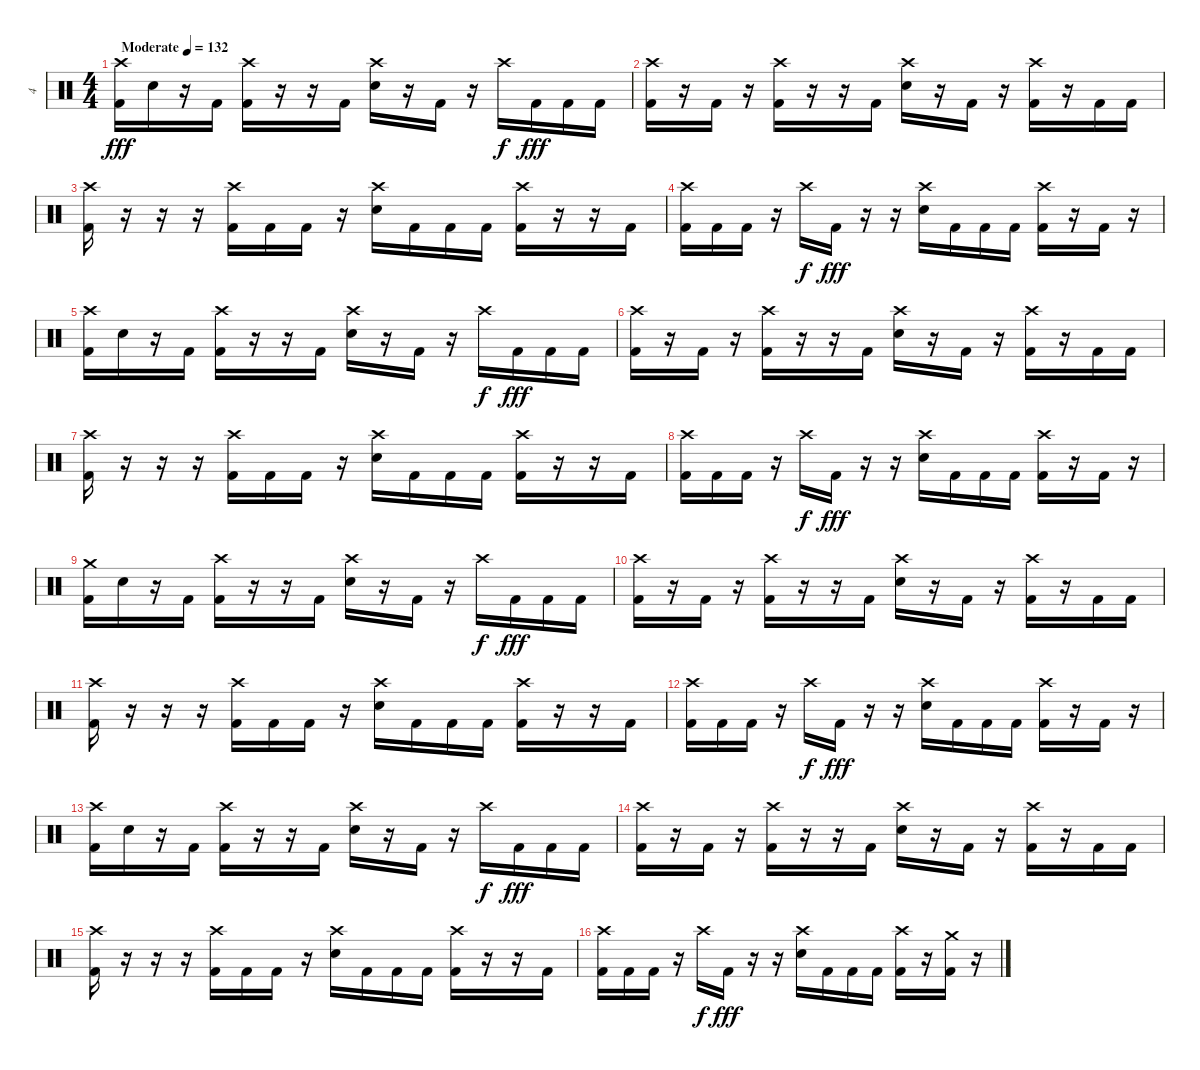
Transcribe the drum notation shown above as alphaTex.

\track ("4" "4") {instrument percussion}
\staff {score}
\articulation defaults
\ts (4 4)
\tempo (132 "Moderate")
\clef neutral
\ks c
("Crash high (hit)" "Kick (hit) 2").16{dy fff} "Snare (hit) 2".16 r.16 "Kick (hit) 2".16 ("Crash high (hit)" "Kick (hit) 2").16 r.16 r.16 "Kick (hit) 2".16 ("Crash high (hit)" "Snare (hit) 2").16 r.16 "Kick (hit) 2".16 r.16 "Crash high (hit)".16{dy f} "Kick (hit) 2".16{dy fff} "Kick (hit) 2".16 "Kick (hit) 2".16 |
("Crash high (hit)" "Kick (hit) 2").16 r.16 "Kick (hit) 2".16 r.16 ("Crash high (hit)" "Kick (hit) 2").16 r.16 r.16 "Kick (hit) 2".16 ("Crash high (hit)" "Snare (hit) 2").16 r.16 "Kick (hit) 2".16 r.16 ("Crash high (hit)" "Kick (hit) 2").16 r.16 "Kick (hit) 2".16 "Kick (hit) 2".16 |
("Crash high (hit)" "Kick (hit) 2").16 r.16 r.16 r.16 ("Crash high (hit)" "Kick (hit) 2").16 "Kick (hit) 2".16 "Kick (hit) 2".16 r.16 ("Crash high (hit)" "Snare (hit) 2").16 "Kick (hit) 2".16 "Kick (hit) 2".16 "Kick (hit) 2".16 ("Crash high (hit)" "Kick (hit) 2").16 r.16 r.16 "Kick (hit) 2".16 |
("Crash high (hit)" "Kick (hit) 2").16 "Kick (hit) 2".16 "Kick (hit) 2".16 r.16 "Crash high (hit)".16{dy f} "Kick (hit) 2".16{dy fff} r.16 r.16 ("Crash high (hit)" "Snare (hit) 2").16 "Kick (hit) 2".16 "Kick (hit) 2".16 "Kick (hit) 2".16 ("Crash high (hit)" "Kick (hit) 2").16 r.16 "Kick (hit) 2".16 r.16 |
("Crash high (hit)" "Kick (hit) 2").16 "Snare (hit) 2".16 r.16 "Kick (hit) 2".16 ("Crash high (hit)" "Kick (hit) 2").16 r.16 r.16 "Kick (hit) 2".16 ("Crash high (hit)" "Snare (hit) 2").16 r.16 "Kick (hit) 2".16 r.16 "Crash high (hit)".16{dy f} "Kick (hit) 2".16{dy fff} "Kick (hit) 2".16 "Kick (hit) 2".16 |
("Crash high (hit)" "Kick (hit) 2").16 r.16 "Kick (hit) 2".16 r.16 ("Crash high (hit)" "Kick (hit) 2").16 r.16 r.16 "Kick (hit) 2".16 ("Crash high (hit)" "Snare (hit) 2").16 r.16 "Kick (hit) 2".16 r.16 ("Crash high (hit)" "Kick (hit) 2").16 r.16 "Kick (hit) 2".16 "Kick (hit) 2".16 |
("Crash high (hit)" "Kick (hit) 2").16 r.16 r.16 r.16 ("Crash high (hit)" "Kick (hit) 2").16 "Kick (hit) 2".16 "Kick (hit) 2".16 r.16 ("Crash high (hit)" "Snare (hit) 2").16 "Kick (hit) 2".16 "Kick (hit) 2".16 "Kick (hit) 2".16 ("Crash high (hit)" "Kick (hit) 2").16 r.16 r.16 "Kick (hit) 2".16 |
("Crash high (hit)" "Kick (hit) 2").16 "Kick (hit) 2".16 "Kick (hit) 2".16 r.16 "Crash high (hit)".16{dy f} "Kick (hit) 2".16{dy fff} r.16 r.16 ("Crash high (hit)" "Snare (hit) 2").16 "Kick (hit) 2".16 "Kick (hit) 2".16 "Kick (hit) 2".16 ("Crash high (hit)" "Kick (hit) 2").16 r.16 "Kick (hit) 2".16 r.16 |
("Crash medium (hit)" "Kick (hit) 2").16 "Snare (hit) 2".16 r.16 "Kick (hit) 2".16 ("Crash high (hit)" "Kick (hit) 2").16 r.16 r.16 "Kick (hit) 2".16 ("Crash high (hit)" "Snare (hit) 2").16 r.16 "Kick (hit) 2".16 r.16 "Crash high (hit)".16{dy f} "Kick (hit) 2".16{dy fff} "Kick (hit) 2".16 "Kick (hit) 2".16 |
("Crash high (hit)" "Kick (hit) 2").16 r.16 "Kick (hit) 2".16 r.16 ("Crash high (hit)" "Kick (hit) 2").16 r.16 r.16 "Kick (hit) 2".16 ("Crash high (hit)" "Snare (hit) 2").16 r.16 "Kick (hit) 2".16 r.16 ("Crash high (hit)" "Kick (hit) 2").16 r.16 "Kick (hit) 2".16 "Kick (hit) 2".16 |
("Crash high (hit)" "Kick (hit) 2").16 r.16 r.16 r.16 ("Crash high (hit)" "Kick (hit) 2").16 "Kick (hit) 2".16 "Kick (hit) 2".16 r.16 ("Crash high (hit)" "Snare (hit) 2").16 "Kick (hit) 2".16 "Kick (hit) 2".16 "Kick (hit) 2".16 ("Crash high (hit)" "Kick (hit) 2").16 r.16 r.16 "Kick (hit) 2".16 |
("Crash high (hit)" "Kick (hit) 2").16 "Kick (hit) 2".16 "Kick (hit) 2".16 r.16 "Crash high (hit)".16{dy f} "Kick (hit) 2".16{dy fff} r.16 r.16 ("Crash high (hit)" "Snare (hit) 2").16 "Kick (hit) 2".16 "Kick (hit) 2".16 "Kick (hit) 2".16 ("Crash high (hit)" "Kick (hit) 2").16 r.16 "Kick (hit) 2".16 r.16 |
("Crash high (hit)" "Kick (hit) 2").16 "Snare (hit) 2".16 r.16 "Kick (hit) 2".16 ("Crash high (hit)" "Kick (hit) 2").16 r.16 r.16 "Kick (hit) 2".16 ("Crash high (hit)" "Snare (hit) 2").16 r.16 "Kick (hit) 2".16 r.16 "Crash high (hit)".16{dy f} "Kick (hit) 2".16{dy fff} "Kick (hit) 2".16 "Kick (hit) 2".16 |
("Crash high (hit)" "Kick (hit) 2").16 r.16 "Kick (hit) 2".16 r.16 ("Crash high (hit)" "Kick (hit) 2").16 r.16 r.16 "Kick (hit) 2".16 ("Crash high (hit)" "Snare (hit) 2").16 r.16 "Kick (hit) 2".16 r.16 ("Crash high (hit)" "Kick (hit) 2").16 r.16 "Kick (hit) 2".16 "Kick (hit) 2".16 |
("Crash high (hit)" "Kick (hit) 2").16 r.16 r.16 r.16 ("Crash high (hit)" "Kick (hit) 2").16 "Kick (hit) 2".16 "Kick (hit) 2".16 r.16 ("Crash high (hit)" "Snare (hit) 2").16 "Kick (hit) 2".16 "Kick (hit) 2".16 "Kick (hit) 2".16 ("Crash high (hit)" "Kick (hit) 2").16 r.16 r.16 "Kick (hit) 2".16 |
("Crash high (hit)" "Kick (hit) 2").16 "Kick (hit) 2".16 "Kick (hit) 2".16 r.16 "Crash high (hit)".16{dy f} "Kick (hit) 2".16{dy fff} r.16 r.16 ("Crash high (hit)" "Snare (hit) 2").16 "Kick (hit) 2".16 "Kick (hit) 2".16 "Kick (hit) 2".16 ("Crash high (hit)" "Kick (hit) 2").16 r.16 ("Crash medium (hit)" "Kick (hit) 2").16 r.16
